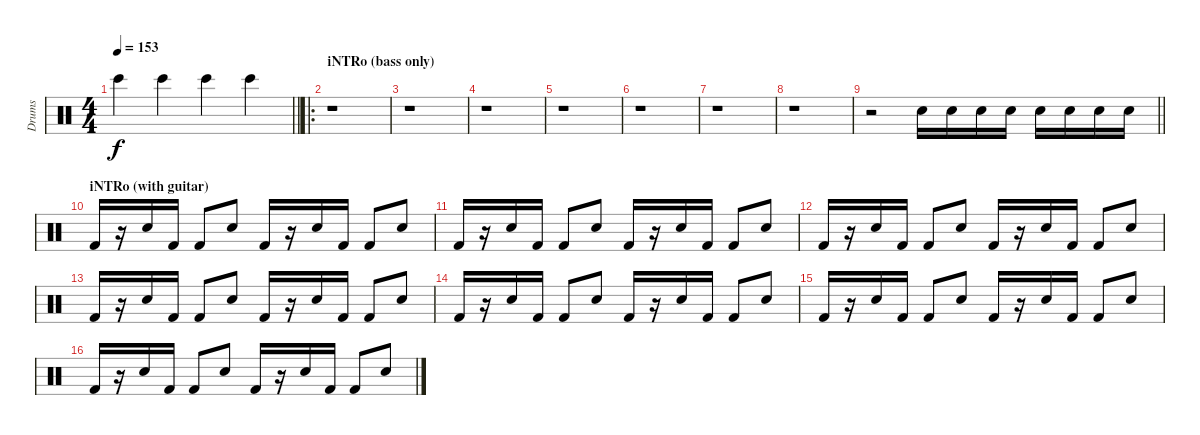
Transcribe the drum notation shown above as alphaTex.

\track ("Drums" "Drums") {instrument percussion}
\staff {score}
\articulation defaults
\ts (4 4)
\section ("" "")
\tempo 153
\clef neutral
\barLineRight lightlight
\ks c "Bongo High (hit)".4{dy f} "Bongo High (hit)".4 "Bongo High (hit)".4 "Bongo High (hit)".4
|
\ro
\section ("" "iNTRo (bass only)")
r.1 |
r.1 |
r.1 |
r.1 |
r.1 |
r.1 |
r.1 |
\barLineRight lightlight
r.2 "Metronome (bell)".16 "Metronome (bell)".16 "Metronome (bell)".16 "Metronome (bell)".16 "Metronome (bell)".16 "Metronome (bell)".16 "Metronome (bell)".16 "Metronome (bell)".16 |
\section ("" "iNTRo (with guitar)")
"Kick (hit) 2".16 r.16 "Electric Snare (hit)".16 "Kick (hit) 2".16 "Kick (hit) 2".8 "Electric Snare (hit)".8 "Kick (hit) 2".16 r.16 "Electric Snare (hit)".16 "Kick (hit) 2".16 "Kick (hit) 2".8 "Electric Snare (hit)".8 |
"Kick (hit) 2".16 r.16 "Electric Snare (hit)".16 "Kick (hit) 2".16 "Kick (hit) 2".8 "Electric Snare (hit)".8 "Kick (hit) 2".16 r.16 "Electric Snare (hit)".16 "Kick (hit) 2".16 "Kick (hit) 2".8 "Electric Snare (hit)".8 |
"Kick (hit) 2".16 r.16 "Electric Snare (hit)".16 "Kick (hit) 2".16 "Kick (hit) 2".8 "Electric Snare (hit)".8 "Kick (hit) 2".16 r.16 "Electric Snare (hit)".16 "Kick (hit) 2".16 "Kick (hit) 2".8 "Electric Snare (hit)".8 |
"Kick (hit) 2".16 r.16 "Electric Snare (hit)".16 "Kick (hit) 2".16 "Kick (hit) 2".8 "Electric Snare (hit)".8 "Kick (hit) 2".16 r.16 "Electric Snare (hit)".16 "Kick (hit) 2".16 "Kick (hit) 2".8 "Electric Snare (hit)".8 |
"Kick (hit) 2".16 r.16 "Electric Snare (hit)".16 "Kick (hit) 2".16 "Kick (hit) 2".8 "Electric Snare (hit)".8 "Kick (hit) 2".16 r.16 "Electric Snare (hit)".16 "Kick (hit) 2".16 "Kick (hit) 2".8 "Electric Snare (hit)".8 |
"Kick (hit) 2".16 r.16 "Electric Snare (hit)".16 "Kick (hit) 2".16 "Kick (hit) 2".8 "Electric Snare (hit)".8 "Kick (hit) 2".16 r.16 "Electric Snare (hit)".16 "Kick (hit) 2".16 "Kick (hit) 2".8 "Electric Snare (hit)".8 |
"Kick (hit) 2".16 r.16 "Electric Snare (hit)".16 "Kick (hit) 2".16 "Kick (hit) 2".8 "Electric Snare (hit)".8 "Kick (hit) 2".16 r.16 "Electric Snare (hit)".16 "Kick (hit) 2".16 "Kick (hit) 2".8 "Electric Snare (hit)".8
